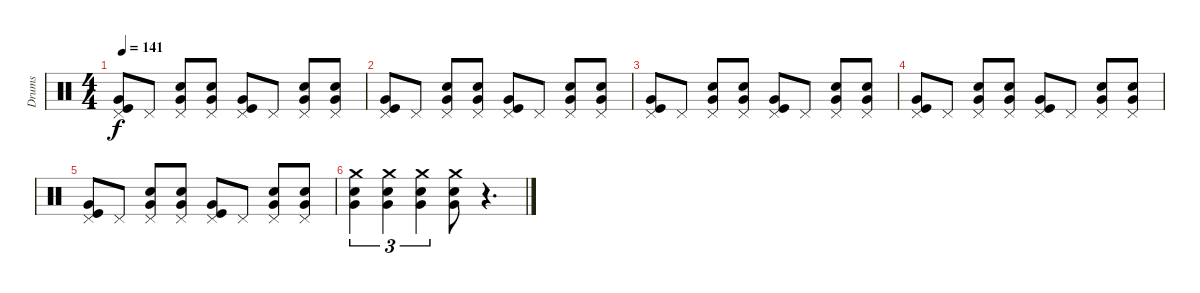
\track ("Drums" "Drums") {instrument percussion}
\staff {score}
\articulation defaults
\ts (4 4)
\tempo 141
\clef neutral
\ks c
("Pedal Hi-Hat (hit)" "Very Low Tom (hit)" "Kick (hit)").8{dy f} "Pedal Hi-Hat (hit)".8 ("Pedal Hi-Hat (hit)" "Very Low Tom (hit)" "Snare (hit) 2").8 ("Pedal Hi-Hat (hit)" "Very Low Tom (hit)" "Snare (hit) 2").8 ("Pedal Hi-Hat (hit)" "Very Low Tom (hit)" "Kick (hit)").8 "Pedal Hi-Hat (hit)".8 ("Pedal Hi-Hat (hit)" "Very Low Tom (hit)" "Snare (hit) 2").8 ("Pedal Hi-Hat (hit)" "Very Low Tom (hit)" "Snare (hit) 2").8 |
("Pedal Hi-Hat (hit)" "Very Low Tom (hit)" "Kick (hit)").8 "Pedal Hi-Hat (hit)".8 ("Pedal Hi-Hat (hit)" "Very Low Tom (hit)" "Snare (hit) 2").8 ("Pedal Hi-Hat (hit)" "Very Low Tom (hit)" "Snare (hit) 2").8 ("Pedal Hi-Hat (hit)" "Very Low Tom (hit)" "Kick (hit)").8 "Pedal Hi-Hat (hit)".8 ("Pedal Hi-Hat (hit)" "Very Low Tom (hit)" "Snare (hit) 2").8 ("Pedal Hi-Hat (hit)" "Very Low Tom (hit)" "Snare (hit) 2").8 |
("Pedal Hi-Hat (hit)" "Very Low Tom (hit)" "Kick (hit)").8 "Pedal Hi-Hat (hit)".8 ("Pedal Hi-Hat (hit)" "Very Low Tom (hit)" "Snare (hit) 2").8 ("Pedal Hi-Hat (hit)" "Very Low Tom (hit)" "Snare (hit) 2").8 ("Pedal Hi-Hat (hit)" "Very Low Tom (hit)" "Kick (hit)").8 "Pedal Hi-Hat (hit)".8 ("Pedal Hi-Hat (hit)" "Very Low Tom (hit)" "Snare (hit) 2").8 ("Pedal Hi-Hat (hit)" "Very Low Tom (hit)" "Snare (hit) 2").8 |
("Pedal Hi-Hat (hit)" "Very Low Tom (hit)" "Kick (hit)").8 "Pedal Hi-Hat (hit)".8 ("Pedal Hi-Hat (hit)" "Very Low Tom (hit)" "Snare (hit) 2").8 ("Pedal Hi-Hat (hit)" "Very Low Tom (hit)" "Snare (hit) 2").8 ("Pedal Hi-Hat (hit)" "Very Low Tom (hit)" "Kick (hit)").8 "Pedal Hi-Hat (hit)".8 ("Pedal Hi-Hat (hit)" "Very Low Tom (hit)" "Snare (hit) 2").8 ("Pedal Hi-Hat (hit)" "Very Low Tom (hit)" "Snare (hit) 2").8 |
("Pedal Hi-Hat (hit)" "Very Low Tom (hit)" "Kick (hit)").8 "Pedal Hi-Hat (hit)".8 ("Pedal Hi-Hat (hit)" "Very Low Tom (hit)" "Snare (hit) 2").8 ("Pedal Hi-Hat (hit)" "Very Low Tom (hit)" "Snare (hit) 2").8 ("Pedal Hi-Hat (hit)" "Very Low Tom (hit)" "Kick (hit)").8 "Pedal Hi-Hat (hit)".8 ("Pedal Hi-Hat (hit)" "Very Low Tom (hit)" "Snare (hit) 2").8 ("Pedal Hi-Hat (hit)" "Very Low Tom (hit)" "Snare (hit) 2").8 |
("Crash medium (hit)" "Snare (hit) 2" "Very Low Tom (hit)").4{tu (3 2)} ("Crash medium (hit)" "Snare (hit) 2" "Very Low Tom (hit)").4{tu (3 2)} ("Crash medium (hit)" "Snare (hit) 2" "Very Low Tom (hit)").4{tu (3 2)} ("Crash medium (hit)" "Snare (hit) 2" "Very Low Tom (hit)").8 r.4{d}
